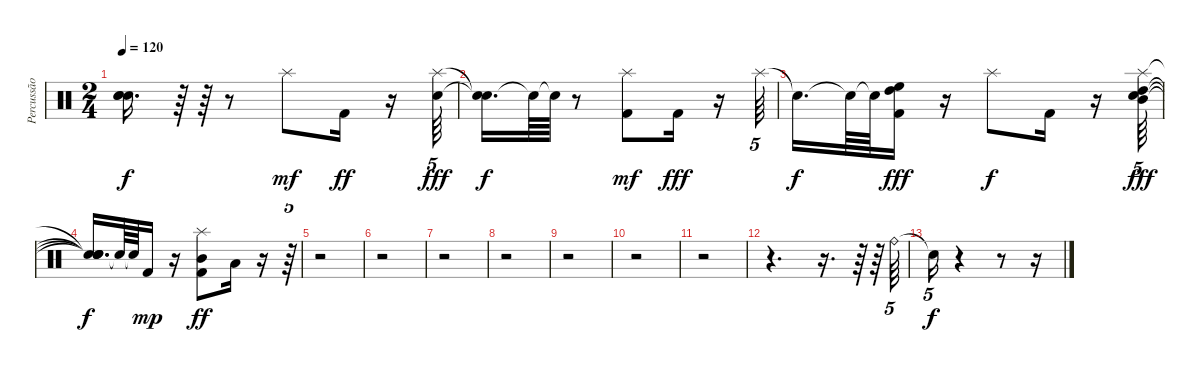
\track ("Percussão" "Percussão") {instrument percussion}
\staff {score}
\articulation defaults
\ts (2 4)
\tempo 120
\clef neutral
\ks c
("Snare (hit)"{t} "Snare (hit)"{t} "Snare (hit)"{t}).16{d dy f} r.64 r.64 r.8 "Splash (hit)".8{dy mf} "Kick (hit) 2".16{dy ff} r.16 ("Snare (hit) 2" "Splash (hit)").64{tu (5 4) dy fff} |
("Snare (hit)"{t} "Snare (hit)"{t}).16{d dy f} "Snare (hit)"{t}.64 "Snare (hit)"{t}.64 r.8 ("Kick (hit) 2" "Splash (hit)").8{dy mf} "Kick (hit) 2".16{dy fff} r.16 "Splash (hit)".64{tu (5 4)} |
"Snare (hit)"{t}.16{d dy f} "Snare (hit)"{t}.64 "Snare (hit)"{t}.64 ("High Tom (hit)" "Kick (hit) 2" "High Floor Tom (hit)").16{dy fff} r.16 "Splash (hit)".8{dy f} "Kick (hit) 2".16 r.16 ("Mid Tom (hit)" "High Tom (hit)" "Snare (hit) 2" "Splash (hit)").64{tu (5 4) dy fff} |
("Snare (hit)"{t} "Snare (hit)"{t} "Snare (hit)"{t} "Snare (hit)"{t}).16{d dy f} "Snare (hit)"{t}.64 "Snare (hit)"{t}.64 "Kick (hit) 2".16{dy mp} r.16 ("Mid Tom (hit)" "Kick (hit) 2" "Splash (hit)").8{dy ff} "Low Tom (hit)".16 r.16 r.64{tu (5 4)} |
r.2 |
r.2 |
r.2 |
r.2 |
r.2 |
r.2 |
r.2 |
r.4{d} r.16{d} r.64 r.64 "Ride (bell)".64{tu (5 4)} |
"Snare (hit)"{t}.16{tu (5 4) dy f} r.4 r.8 r.16
